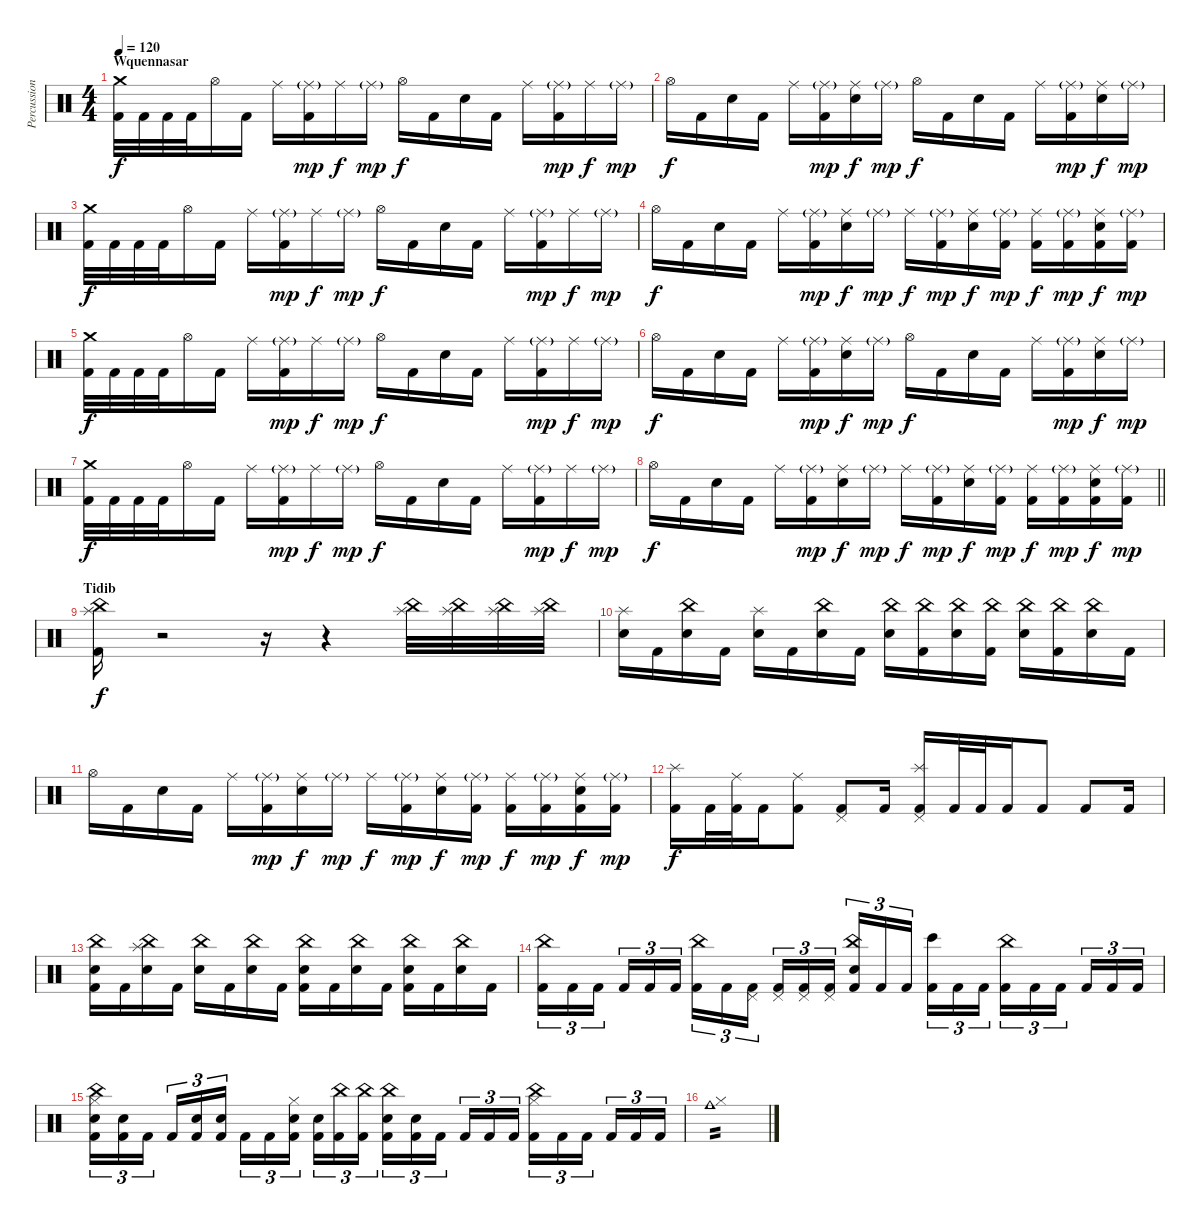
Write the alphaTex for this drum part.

\track ("Percussion" "Percussion") {instrument percussion}
\staff {score}
\articulation defaults
\ts (4 4)
\section ("" "Wquennasar")
\tempo 120
\clef neutral
\ks c
("Crash medium (hit)" "Kick (hit) 2").32{dy f} "Kick (hit) 2".32 "Kick (hit) 2".32 "Kick (hit) 2".32 "Hi-Hat (open)".16 "Kick (hit) 2".16 "Ride (middle)".16 ("Ride (middle)"{g} "Kick (hit) 2").16{dy mp} "Ride (middle)".16{dy f} "Ride (middle)"{g}.16{dy mp} "Hi-Hat (open)".16{dy f} "Kick (hit) 2".16 "Electric Snare (hit)".16 "Kick (hit) 2".16 "Ride (middle)".16 ("Ride (middle)"{g} "Kick (hit) 2").16{dy mp} "Ride (middle)".16{dy f} "Ride (middle)"{g}.16{dy mp} |
"Hi-Hat (open)".16{dy f} "Kick (hit) 2".16 "Electric Snare (hit)".16 "Kick (hit) 2".16 "Ride (middle)".16 ("Ride (middle)"{g} "Kick (hit) 2").16{dy mp} ("Ride (middle)" "Electric Snare (hit)").16{dy f} "Ride (middle)"{g}.16{dy mp} "Hi-Hat (open)".16{dy f} "Kick (hit) 2".16 "Electric Snare (hit)".16 "Kick (hit) 2".16 "Ride (middle)".16 ("Ride (middle)"{g} "Kick (hit) 2").16{dy mp} ("Ride (middle)" "Electric Snare (hit)").16{dy f} "Ride (middle)"{g}.16{dy mp} |
("Crash medium (hit)" "Kick (hit) 2").32{dy f} "Kick (hit) 2".32 "Kick (hit) 2".32 "Kick (hit) 2".32 "Hi-Hat (open)".16 "Kick (hit) 2".16 "Ride (middle)".16 ("Ride (middle)"{g} "Kick (hit) 2").16{dy mp} "Ride (middle)".16{dy f} "Ride (middle)"{g}.16{dy mp} "Hi-Hat (open)".16{dy f} "Kick (hit) 2".16 "Electric Snare (hit)".16 "Kick (hit) 2".16 "Ride (middle)".16 ("Ride (middle)"{g} "Kick (hit) 2").16{dy mp} "Ride (middle)".16{dy f} "Ride (middle)"{g}.16{dy mp} |
"Hi-Hat (open)".16{dy f} "Kick (hit) 2".16 "Electric Snare (hit)".16 "Kick (hit) 2".16 "Ride (middle)".16 ("Ride (middle)"{g} "Kick (hit) 2").16{dy mp} ("Ride (middle)" "Electric Snare (hit)").16{dy f} "Ride (middle)"{g}.16{dy mp} "Ride (middle)".16{dy f} ("Ride (middle)"{g} "Kick (hit) 2").16{dy mp} ("Ride (middle)" "Electric Snare (hit)").16{dy f} ("Ride (middle)"{g} "Kick (hit) 2").16{dy mp} ("Ride (middle)" "Kick (hit) 2").16{dy f} ("Ride (middle)"{g} "Kick (hit) 2").16{dy mp} ("Ride (middle)" "Electric Snare (hit)" "Kick (hit) 2").16{dy f} ("Ride (middle)"{g} "Kick (hit) 2").16{dy mp} |
("Crash medium (hit)" "Kick (hit) 2").32{dy f} "Kick (hit) 2".32 "Kick (hit) 2".32 "Kick (hit) 2".32 "Hi-Hat (open)".16 "Kick (hit) 2".16 "Ride (middle)".16 ("Ride (middle)"{g} "Kick (hit) 2").16{dy mp} "Ride (middle)".16{dy f} "Ride (middle)"{g}.16{dy mp} "Hi-Hat (open)".16{dy f} "Kick (hit) 2".16 "Electric Snare (hit)".16 "Kick (hit) 2".16 "Ride (middle)".16 ("Ride (middle)"{g} "Kick (hit) 2").16{dy mp} "Ride (middle)".16{dy f} "Ride (middle)"{g}.16{dy mp} |
"Hi-Hat (open)".16{dy f} "Kick (hit) 2".16 "Electric Snare (hit)".16 "Kick (hit) 2".16 "Ride (middle)".16 ("Ride (middle)"{g} "Kick (hit) 2").16{dy mp} ("Ride (middle)" "Electric Snare (hit)").16{dy f} "Ride (middle)"{g}.16{dy mp} "Hi-Hat (open)".16{dy f} "Kick (hit) 2".16 "Electric Snare (hit)".16 "Kick (hit) 2".16 "Ride (middle)".16 ("Ride (middle)"{g} "Kick (hit) 2").16{dy mp} ("Ride (middle)" "Electric Snare (hit)").16{dy f} "Ride (middle)"{g}.16{dy mp} |
("Crash medium (hit)" "Kick (hit) 2").32{dy f} "Kick (hit) 2".32 "Kick (hit) 2".32 "Kick (hit) 2".32 "Hi-Hat (open)".16 "Kick (hit) 2".16 "Ride (middle)".16 ("Ride (middle)"{g} "Kick (hit) 2").16{dy mp} "Ride (middle)".16{dy f} "Ride (middle)"{g}.16{dy mp} "Hi-Hat (open)".16{dy f} "Kick (hit) 2".16 "Electric Snare (hit)".16 "Kick (hit) 2".16 "Ride (middle)".16 ("Ride (middle)"{g} "Kick (hit) 2").16{dy mp} "Ride (middle)".16{dy f} "Ride (middle)"{g}.16{dy mp} |
\barLineRight lightlight "Hi-Hat (open)".16{dy f} "Kick (hit) 2".16 "Electric Snare (hit)".16 "Kick (hit) 2".16 "Ride (middle)".16
("Ride (middle)"{g} "Kick (hit) 2").16{dy mp} ("Ride (middle)" "Electric Snare (hit)").16{dy f} "Ride (middle)"{g}.16{dy mp} "Ride (middle)".16{dy f} ("Ride (middle)"{g} "Kick (hit) 2").16{dy mp} ("Ride (middle)" "Electric Snare (hit)").16{dy f} ("Ride (middle)"{g} "Kick (hit) 2").16{dy mp} ("Ride (middle)" "Kick (hit) 2").16{dy f} ("Ride (middle)"{g} "Kick (hit) 2").16{dy mp} ("Ride (middle)" "Electric Snare (hit)" "Kick (hit) 2").16{dy f} ("Ride (middle)"{g} "Kick (hit) 2").16{dy mp} |
\section ("" "Tidib")
("China (hit)" "Splash (hit)" "Kick (hit) 2").16{dy f} r.2 r.16 r.4 ("China (hit)" "Splash (hit)").32 ("China (hit)" "Splash (hit)").32 ("China (hit)" "Splash (hit)").32 ("China (hit)" "Splash (hit)").32 |
("Splash (hit)" "Electric Snare (hit)").16 "Kick (hit) 2".16 ("China (hit)" "Electric Snare (hit)").16 "Kick (hit) 2".16 ("Splash (hit)" "Electric Snare (hit)").16 "Kick (hit) 2".16 ("China (hit)" "Electric Snare (hit)").16 "Kick (hit) 2".16 ("China (hit)" "Electric Snare (hit)").16 ("China (hit)" "Kick (hit) 2").16 ("China (hit)" "Electric Snare (hit)").16 ("China (hit)" "Kick (hit) 2").16 ("China (hit)" "Electric Snare (hit)").16 ("China (hit)" "Kick (hit) 2").16 ("China (hit)" "Electric Snare (hit)").16 "Kick (hit) 2".16 |
"Hi-Hat (open)".16 "Kick (hit) 2".16 "Electric Snare (hit)".16 "Kick (hit) 2".16 "Ride (middle)".16 ("Ride (middle)"{g} "Kick (hit) 2").16{dy mp} ("Ride (middle)" "Electric Snare (hit)").16{dy f} "Ride (middle)"{g}.16{dy mp} "Ride (middle)".16{dy f} ("Ride (middle)"{g} "Kick (hit) 2").16{dy mp} ("Ride (middle)" "Electric Snare (hit)").16{dy f} ("Ride (middle)"{g} "Kick (hit) 2").16{dy mp} ("Ride (middle)" "Kick (hit) 2").16{dy f} ("Ride (middle)"{g} "Kick (hit) 2").16{dy mp} ("Ride (middle)" "Electric Snare (hit)" "Kick (hit) 2").16{dy f} ("Ride (middle)"{g} "Kick (hit) 2").16{dy mp} |
("Splash (hit)" "Kick (hit) 2").16{dy f} "Kick (hit) 2".32 ("Ride (middle)" "Kick (hit) 2").32 "Kick (hit) 2".16 ("Ride (middle)" "Kick (hit) 2").8 ("Pedal Hi-Hat (hit)" "Kick (hit) 2").8 "Kick (hit) 2".16 ("Splash (hit)" "Pedal Hi-Hat (hit)" "Kick (hit) 2").16 "Kick (hit) 2".32 "Kick (hit) 2".32 "Kick (hit) 2".16 "Kick (hit) 2".8 "Kick (hit) 2".8 "Kick (hit) 2".16 |
("China (hit)" "Electric Snare (hit)" "Kick (hit) 2").16 "Kick (hit) 2".16 ("China (hit)" "Splash (hit)" "Electric Snare (hit)").16 "Kick (hit) 2".16 ("China (hit)" "Electric Snare (hit)").16 "Kick (hit) 2".16 ("China (hit)" "Electric Snare (hit)").16 "Kick (hit) 2".16 ("China (hit)" "Electric Snare (hit)" "Kick (hit) 2").16 "Kick (hit) 2".16 ("China (hit)" "Electric Snare (hit)").16 "Kick (hit) 2".16 ("China (hit)" "Electric Snare (hit)" "Kick (hit) 2").16 "Kick (hit) 2".16 ("China (hit)" "Electric Snare (hit)").16 "Kick (hit) 2".16 |
("China (hit)" "Kick (hit) 2").16{tu (3 2)} "Kick (hit) 2".16{tu (3 2)} "Kick (hit) 2".16{tu (3 2) beam splitsecondary} "Kick (hit) 2".16{tu (3 2)} "Kick (hit) 2".16{tu (3 2)} "Kick (hit) 2".16{tu (3 2)} ("China (hit)" "Kick (hit) 2").16{tu (3 2)} "Kick (hit) 2".16{tu (3 2)} ("Pedal Hi-Hat (hit)" "Kick (hit) 2").16{tu (3 2) beam splitsecondary} ("Pedal Hi-Hat (hit)" "Kick (hit) 2").16{tu (3 2)} ("Pedal Hi-Hat (hit)" "Kick (hit) 2").16{tu (3 2)} ("Pedal Hi-Hat (hit)" "Kick (hit) 2").16{tu (3 2)} ("Snare (hit) 2" "China (hit)" "Kick (hit) 2").16{tu (3 2)} "Kick (hit) 2".16{tu (3 2)} "Kick (hit) 2".16{tu (3 2) beam splitsecondary} ("Bongo High (hit)" "Kick (hit) 2").16{tu (3 2)} "Kick (hit) 2".16{tu (3 2)} "Kick (hit) 2".16{tu (3 2)} ("China (hit)" "Kick (hit) 2").16{tu (3 2)} "Kick (hit) 2".16{tu (3 2)} "Kick (hit) 2".16{tu (3 2) beam splitsecondary} "Kick (hit) 2".16{tu (3 2)} "Kick (hit) 2".16{tu (3 2)} "Kick (hit) 2".16{tu (3 2)} |
("China (hit)" "Electric Snare (hit)" "Hi-Hat (closed)" "Kick (hit) 2").16{tu (3 2)} ("Electric Snare (hit)" "Kick (hit) 2").16{tu (3 2)} "Kick (hit) 2".16{tu (3 2) beam splitsecondary} "Kick (hit) 2".16{tu (3 2)} ("Electric Snare (hit)" "Kick (hit) 2").16{tu (3 2)} ("Electric Snare (hit)" "Kick (hit) 2").16{tu (3 2)} "Kick (hit) 2".16{tu (3 2)} "Kick (hit) 2".16{tu (3 2)} ("Electric Snare (hit)" "Hi-Hat (closed)" "Kick (hit) 2").16{tu (3 2) beam splitsecondary} ("Electric Snare (hit)" "Kick (hit) 2").16{tu (3 2)} ("China (hit)" "Kick (hit) 2").16{tu (3 2)} ("China (hit)" "Kick (hit) 2").16{tu (3 2)} ("China (hit)" "Electric Snare (hit)" "Kick (hit) 2").16{tu (3 2)} ("Electric Snare (hit)" "Kick (hit) 2").16{tu (3 2)} "Kick (hit) 2".16{tu (3 2) beam splitsecondary} "Kick (hit) 2".16{tu (3 2)} "Kick (hit) 2".16{tu (3 2)} "Kick (hit) 2".16{tu (3 2)} ("China (hit)" "Hi-Hat (closed)" "Kick (hit) 2").16{tu (3 2)} "Kick (hit) 2".16{tu (3 2)} "Kick (hit) 2".16{tu (3 2) beam splitsecondary} "Kick (hit) 2".16{tu (3 2)} "Kick (hit) 2".16{tu (3 2)} "Kick (hit) 2".16{tu (3 2)} |
("Cowbell medium (hit)" "Hi-Hat (closed)").1{tp 2}
